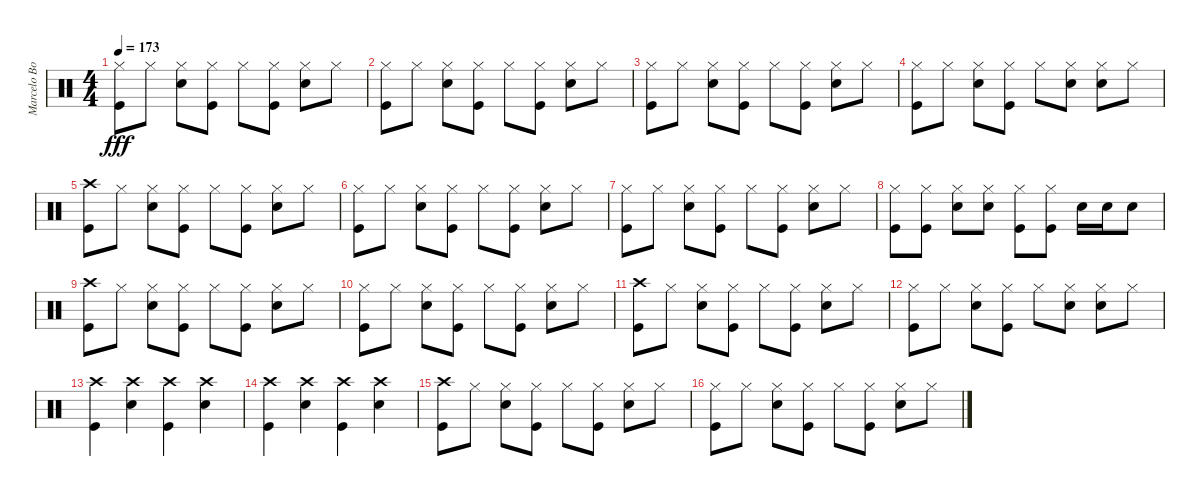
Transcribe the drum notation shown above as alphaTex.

\track ("Marcelo Bonfá (Bateria)" "Marcelo Bo") {instrument percussion}
\staff {score}
\articulation defaults
\ts (4 4)
\tempo 173
\clef neutral
\ks c
("Kick (hit)" "Hi-Hat (closed)").8{dy fff} "Hi-Hat (closed)".8 ("Snare (hit) 2" "Hi-Hat (closed)").8 ("Kick (hit)" "Hi-Hat (closed)").8 "Hi-Hat (closed)".8 ("Hi-Hat (closed)" "Kick (hit)").8 ("Snare (hit) 2" "Hi-Hat (closed)").8 "Hi-Hat (closed)".8 |
("Kick (hit)" "Hi-Hat (closed)").8 "Hi-Hat (closed)".8 ("Snare (hit) 2" "Hi-Hat (closed)").8 ("Kick (hit)" "Hi-Hat (closed)").8 "Hi-Hat (closed)".8 ("Hi-Hat (closed)" "Kick (hit)").8 ("Snare (hit) 2" "Hi-Hat (closed)").8 "Hi-Hat (closed)".8 |
("Kick (hit)" "Hi-Hat (closed)").8 "Hi-Hat (closed)".8 ("Snare (hit) 2" "Hi-Hat (closed)").8 ("Kick (hit)" "Hi-Hat (closed)").8 "Hi-Hat (closed)".8 ("Hi-Hat (closed)" "Kick (hit)").8 ("Snare (hit) 2" "Hi-Hat (closed)").8 "Hi-Hat (closed)".8 |
("Kick (hit)" "Hi-Hat (closed)").8 "Hi-Hat (closed)".8 ("Snare (hit) 2" "Hi-Hat (closed)").8 ("Kick (hit)" "Hi-Hat (closed)").8 "Hi-Hat (closed)".8 ("Snare (hit) 2" "Hi-Hat (closed)").8 ("Snare (hit) 2" "Hi-Hat (closed)").8 "Hi-Hat (closed)".8 |
("Kick (hit)" "Crash high (hit)").8 "Hi-Hat (closed)".8 ("Snare (hit) 2" "Hi-Hat (closed)").8 ("Kick (hit)" "Hi-Hat (closed)").8 "Hi-Hat (closed)".8 ("Hi-Hat (closed)" "Kick (hit)").8 ("Snare (hit) 2" "Hi-Hat (closed)").8 "Hi-Hat (closed)".8 |
("Kick (hit)" "Hi-Hat (closed)").8 "Hi-Hat (closed)".8 ("Snare (hit) 2" "Hi-Hat (closed)").8 ("Kick (hit)" "Hi-Hat (closed)").8 "Hi-Hat (closed)".8 ("Hi-Hat (closed)" "Kick (hit)").8 ("Snare (hit) 2" "Hi-Hat (closed)").8 "Hi-Hat (closed)".8 |
("Kick (hit)" "Hi-Hat (closed)").8 "Hi-Hat (closed)".8 ("Snare (hit) 2" "Hi-Hat (closed)").8 ("Kick (hit)" "Hi-Hat (closed)").8 "Hi-Hat (closed)".8 ("Hi-Hat (closed)" "Kick (hit)").8 ("Snare (hit) 2" "Hi-Hat (closed)").8 "Hi-Hat (closed)".8 |
("Kick (hit)" "Hi-Hat (closed)").8 ("Kick (hit)" "Hi-Hat (closed)").8 ("Snare (hit) 2" "Hi-Hat (closed)").8 ("Snare (hit) 2" "Hi-Hat (closed)").8 ("Kick (hit)" "Hi-Hat (closed)").8 ("Kick (hit)" "Hi-Hat (closed)").8 "Snare (hit) 2".16 "Snare (hit) 2".16 "Snare (hit) 2".8 |
("Kick (hit)" "Crash high (hit)").8 "Hi-Hat (closed)".8 ("Snare (hit) 2" "Hi-Hat (closed)").8 ("Kick (hit)" "Hi-Hat (closed)").8 "Hi-Hat (closed)".8 ("Hi-Hat (closed)" "Kick (hit)").8 ("Snare (hit) 2" "Hi-Hat (closed)").8 "Hi-Hat (closed)".8 |
("Kick (hit)" "Hi-Hat (closed)").8 "Hi-Hat (closed)".8 ("Snare (hit) 2" "Hi-Hat (closed)").8 ("Kick (hit)" "Hi-Hat (closed)").8 "Hi-Hat (closed)".8 ("Hi-Hat (closed)" "Kick (hit)").8 ("Snare (hit) 2" "Hi-Hat (closed)").8 "Hi-Hat (closed)".8 |
("Kick (hit)" "Crash high (hit)").8 "Hi-Hat (closed)".8 ("Snare (hit) 2" "Hi-Hat (closed)").8 ("Kick (hit)" "Hi-Hat (closed)").8 "Hi-Hat (closed)".8 ("Hi-Hat (closed)" "Kick (hit)").8 ("Snare (hit) 2" "Hi-Hat (closed)").8 "Hi-Hat (closed)".8 |
("Kick (hit)" "Hi-Hat (closed)").8 "Hi-Hat (closed)".8 ("Snare (hit) 2" "Hi-Hat (closed)").8 ("Kick (hit)" "Hi-Hat (closed)").8 "Hi-Hat (closed)".8 ("Snare (hit) 2" "Hi-Hat (closed)").8 ("Snare (hit) 2" "Hi-Hat (closed)").8 "Hi-Hat (closed)".8 |
("Kick (hit)" "Crash high (hit)").4 ("Crash high (hit)" "Snare (hit) 2").4 ("Kick (hit)" "Crash high (hit)").4 ("Snare (hit) 2" "Crash high (hit)").4 |
("Kick (hit)" "Crash high (hit)").4 ("Crash high (hit)" "Snare (hit) 2").4 ("Kick (hit)" "Crash high (hit)").4 ("Snare (hit) 2" "Crash high (hit)").4 |
("Kick (hit)" "Crash high (hit)").8 "Hi-Hat (closed)".8 ("Snare (hit) 2" "Hi-Hat (closed)").8 ("Kick (hit)" "Hi-Hat (closed)").8 "Hi-Hat (closed)".8 ("Hi-Hat (closed)" "Kick (hit)").8 ("Snare (hit) 2" "Hi-Hat (closed)").8 "Hi-Hat (closed)".8 |
("Kick (hit)" "Hi-Hat (closed)").8 "Hi-Hat (closed)".8 ("Snare (hit) 2" "Hi-Hat (closed)").8 ("Kick (hit)" "Hi-Hat (closed)").8 "Hi-Hat (closed)".8 ("Hi-Hat (closed)" "Kick (hit)").8 ("Snare (hit) 2" "Hi-Hat (closed)").8 "Hi-Hat (closed)".8
